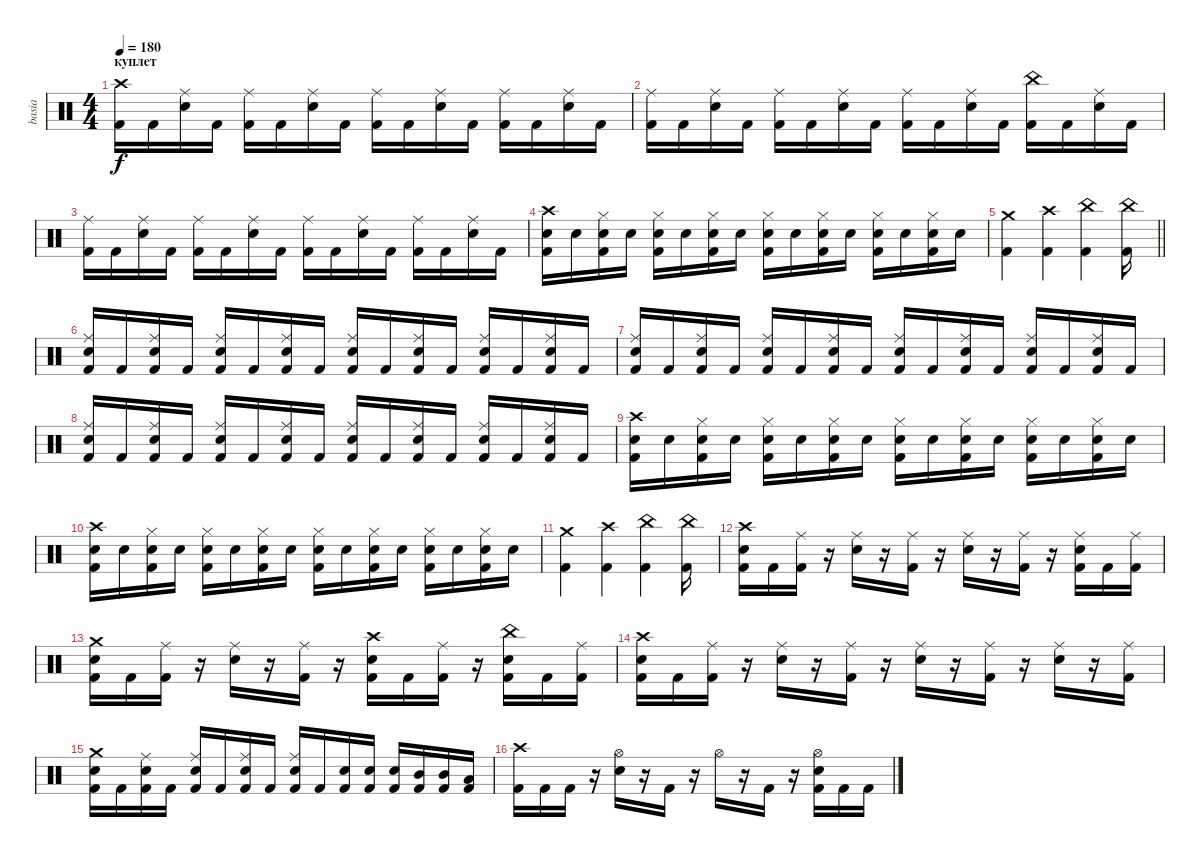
\track ("basia" "basia") {instrument percussion}
\staff {score}
\articulation defaults
\ts (4 4)
\section ("" "куплет")
\tempo 180
\clef neutral
\ks c
("Crash high (hit)" "Kick (hit) 2").16{dy f} "Kick (hit) 2".16 ("Ride (middle)" "Snare (hit) 2").16 "Kick (hit) 2".16 ("Ride (middle)" "Kick (hit) 2").16 "Kick (hit) 2".16 ("Ride (middle)" "Snare (hit) 2").16 "Kick (hit) 2".16 ("Ride (middle)" "Kick (hit) 2").16 "Kick (hit) 2".16 ("Ride (middle)" "Snare (hit) 2").16 "Kick (hit) 2".16 ("Ride (middle)" "Kick (hit) 2").16 "Kick (hit) 2".16 ("Ride (middle)" "Snare (hit) 2").16 "Kick (hit) 2".16 |
("Ride (middle)" "Kick (hit) 2").16 "Kick (hit) 2".16 ("Ride (middle)" "Snare (hit) 2").16 "Kick (hit) 2".16 ("Ride (middle)" "Kick (hit) 2").16 "Kick (hit) 2".16 ("Ride (middle)" "Snare (hit) 2").16 "Kick (hit) 2".16 ("Ride (middle)" "Kick (hit) 2").16 "Kick (hit) 2".16 ("Ride (middle)" "Snare (hit) 2").16 "Kick (hit) 2".16 ("China (hit)" "Kick (hit) 2").16 "Kick (hit) 2".16 ("Ride (middle)" "Snare (hit) 2").16 "Kick (hit) 2".16 |
("Ride (middle)" "Kick (hit) 2").16 "Kick (hit) 2".16 ("Ride (middle)" "Snare (hit) 2").16 "Kick (hit) 2".16 ("Ride (middle)" "Kick (hit) 2").16 "Kick (hit) 2".16 ("Ride (middle)" "Snare (hit) 2").16 "Kick (hit) 2".16 ("Ride (middle)" "Kick (hit) 2").16 "Kick (hit) 2".16 ("Ride (middle)" "Snare (hit) 2").16 "Kick (hit) 2".16 ("Ride (middle)" "Kick (hit) 2").16 "Kick (hit) 2".16 ("Ride (middle)" "Snare (hit) 2").16 "Kick (hit) 2".16 |
("Crash high (hit)" "Snare (hit) 2" "Kick (hit) 2").16 "Snare (hit) 2".16 ("Hi-Hat (closed)" "Snare (hit) 2" "Kick (hit) 2").16 "Snare (hit) 2".16 ("Hi-Hat (closed)" "Snare (hit) 2" "Kick (hit) 2").16 "Snare (hit) 2".16 ("Hi-Hat (closed)" "Snare (hit) 2" "Kick (hit) 2").16 "Snare (hit) 2".16 ("Hi-Hat (closed)" "Snare (hit) 2" "Kick (hit) 2").16 "Snare (hit) 2".16 ("Hi-Hat (closed)" "Snare (hit) 2" "Kick (hit) 2").16 "Snare (hit) 2".16 ("Hi-Hat (closed)" "Snare (hit) 2" "Kick (hit) 2").16 "Snare (hit) 2".16 ("Hi-Hat (closed)" "Snare (hit) 2" "Kick (hit) 2").16 "Snare (hit) 2".16 |
\barLineRight lightlight
("Crash medium (hit)" "Kick (hit) 2").4 ("Crash high (hit)" "Kick (hit) 2").4 ("China (hit)" "Kick (hit) 2").4 ("China (hit)" "Kick (hit) 2").16 |
("Ride (middle)" "Snare (hit) 2" "Kick (hit) 2").16 "Kick (hit) 2".16 ("Ride (middle)" "Snare (hit) 2" "Kick (hit) 2").16 "Kick (hit) 2".16 ("Ride (middle)" "Snare (hit) 2" "Kick (hit) 2").16 "Kick (hit) 2".16 ("Ride (middle)" "Snare (hit) 2" "Kick (hit) 2").16 "Kick (hit) 2".16 ("Ride (middle)" "Snare (hit) 2" "Kick (hit) 2").16 "Kick (hit) 2".16 ("Ride (middle)" "Snare (hit) 2" "Kick (hit) 2").16 "Kick (hit) 2".16 ("Ride (middle)" "Snare (hit) 2" "Kick (hit) 2").16 "Kick (hit) 2".16 ("Ride (middle)" "Snare (hit) 2" "Kick (hit) 2").16 "Kick (hit) 2".16 |
("Ride (middle)" "Snare (hit) 2" "Kick (hit) 2").16 "Kick (hit) 2".16 ("Ride (middle)" "Snare (hit) 2" "Kick (hit) 2").16 "Kick (hit) 2".16 ("Ride (middle)" "Snare (hit) 2" "Kick (hit) 2").16 "Kick (hit) 2".16 ("Ride (middle)" "Snare (hit) 2" "Kick (hit) 2").16 "Kick (hit) 2".16 ("Ride (middle)" "Snare (hit) 2" "Kick (hit) 2").16 "Kick (hit) 2".16 ("Ride (middle)" "Snare (hit) 2" "Kick (hit) 2").16 "Kick (hit) 2".16 ("Ride (middle)" "Snare (hit) 2" "Kick (hit) 2").16 "Kick (hit) 2".16 ("Ride (middle)" "Snare (hit) 2" "Kick (hit) 2").16 "Kick (hit) 2".16 |
("Ride (middle)" "Snare (hit) 2" "Kick (hit) 2").16 "Kick (hit) 2".16 ("Ride (middle)" "Snare (hit) 2" "Kick (hit) 2").16 "Kick (hit) 2".16 ("Ride (middle)" "Snare (hit) 2" "Kick (hit) 2").16 "Kick (hit) 2".16 ("Ride (middle)" "Snare (hit) 2" "Kick (hit) 2").16 "Kick (hit) 2".16 ("Ride (middle)" "Snare (hit) 2" "Kick (hit) 2").16 "Kick (hit) 2".16 ("Ride (middle)" "Snare (hit) 2" "Kick (hit) 2").16 "Kick (hit) 2".16 ("Ride (middle)" "Snare (hit) 2" "Kick (hit) 2").16 "Kick (hit) 2".16 ("Ride (middle)" "Snare (hit) 2" "Kick (hit) 2").16 "Kick (hit) 2".16 |
("Crash high (hit)" "Snare (hit) 2" "Kick (hit) 2").16 "Snare (hit) 2".16 ("Hi-Hat (closed)" "Snare (hit) 2" "Kick (hit) 2").16 "Snare (hit) 2".16 ("Hi-Hat (closed)" "Snare (hit) 2" "Kick (hit) 2").16 "Snare (hit) 2".16 ("Hi-Hat (closed)" "Snare (hit) 2" "Kick (hit) 2").16 "Snare (hit) 2".16 ("Hi-Hat (closed)" "Snare (hit) 2" "Kick (hit) 2").16 "Snare (hit) 2".16 ("Hi-Hat (closed)" "Snare (hit) 2" "Kick (hit) 2").16 "Snare (hit) 2".16 ("Hi-Hat (closed)" "Snare (hit) 2" "Kick (hit) 2").16 "Snare (hit) 2".16 ("Hi-Hat (closed)" "Snare (hit) 2" "Kick (hit) 2").16 "Snare (hit) 2".16 |
("Crash high (hit)" "Snare (hit) 2" "Kick (hit) 2").16 "Snare (hit) 2".16 ("Hi-Hat (closed)" "Snare (hit) 2" "Kick (hit) 2").16 "Snare (hit) 2".16 ("Hi-Hat (closed)" "Snare (hit) 2" "Kick (hit) 2").16 "Snare (hit) 2".16 ("Hi-Hat (closed)" "Snare (hit) 2" "Kick (hit) 2").16 "Snare (hit) 2".16 ("Hi-Hat (closed)" "Snare (hit) 2" "Kick (hit) 2").16 "Snare (hit) 2".16 ("Hi-Hat (closed)" "Snare (hit) 2" "Kick (hit) 2").16 "Snare (hit) 2".16 ("Hi-Hat (closed)" "Snare (hit) 2" "Kick (hit) 2").16 "Snare (hit) 2".16 ("Hi-Hat (closed)" "Snare (hit) 2" "Kick (hit) 2").16 "Snare (hit) 2".16 |
("Crash medium (hit)" "Kick (hit) 2").4 ("Crash high (hit)" "Kick (hit) 2").4 ("China (hit)" "Kick (hit) 2").4 ("China (hit)" "Kick (hit) 2").16 |
("Crash high (hit)" "Snare (hit) 2" "Kick (hit) 2").16 "Kick (hit) 2".16 ("Ride (middle)" "Kick (hit) 2").16 r.16 ("Ride (middle)" "Snare (hit) 2").16 r.16 ("Ride (middle)" "Kick (hit) 2").16 r.16 ("Ride (middle)" "Snare (hit) 2").16 r.16 ("Ride (middle)" "Kick (hit) 2").16 r.16 ("Ride (middle)" "Snare (hit) 2" "Kick (hit) 2").16 "Kick (hit) 2".16 ("Ride (middle)" "Kick (hit) 2").16 |
("Crash medium (hit)" "Snare (hit) 2" "Kick (hit) 2").16 "Kick (hit) 2".16 ("Ride (middle)" "Kick (hit) 2").16 r.16 ("Ride (middle)" "Snare (hit) 2").16 r.16 ("Ride (middle)" "Kick (hit) 2").16 r.16 ("Crash high (hit)" "Snare (hit) 2" "Kick (hit) 2").16 "Kick (hit) 2".16 ("Ride (middle)" "Kick (hit) 2").16 r.16 ("China (hit)" "Snare (hit) 2" "Kick (hit) 2").16 "Kick (hit) 2".16 ("Ride (middle)" "Kick (hit) 2").16 |
("Crash high (hit)" "Snare (hit) 2" "Kick (hit) 2").16 "Kick (hit) 2".16 ("Ride (middle)" "Kick (hit) 2").16 r.16 ("Ride (middle)" "Snare (hit) 2").16 r.16 ("Ride (middle)" "Kick (hit) 2").16 r.16 ("Ride (middle)" "Snare (hit) 2").16 r.16 ("Ride (middle)" "Kick (hit) 2").16 r.16 ("Ride (middle)" "Snare (hit) 2").16 r.16 ("Ride (middle)" "Kick (hit) 2").16 |
("Crash medium (hit)" "Snare (hit) 2" "Kick (hit) 2").16 "Kick (hit) 2".16 ("Ride (middle)" "Snare (hit) 2" "Kick (hit) 2").16 "Kick (hit) 2".16 ("Ride (middle)" "Snare (hit) 2" "Kick (hit) 2").16 "Kick (hit) 2".16 ("Ride (middle)" "Snare (hit) 2" "Kick (hit) 2").16 "Kick (hit) 2".16 ("Ride (middle)" "Snare (hit) 2" "Kick (hit) 2").16 "Kick (hit) 2".16 ("Snare (hit) 2" "Kick (hit) 2").16 ("Snare (hit) 2" "Kick (hit) 2").16 ("Snare (hit) 2" "Kick (hit) 2").16 ("Mid Tom (hit)" "Kick (hit) 2").16 ("Mid Tom (hit)" "Kick (hit) 2").16 ("Low Tom (hit)" "Kick (hit) 2").16 |
("Crash high (hit)" "Kick (hit) 2").16 "Kick (hit) 2".16 "Kick (hit) 2".16 r.16 ("Hi-Hat (open)" "Snare (hit) 2").16 r.16 "Kick (hit) 2".16 r.16 "Hi-Hat (open)".16 r.16 "Kick (hit) 2".16 r.16 ("Hi-Hat (open)" "Snare (hit) 2" "Kick (hit) 2").16 "Kick (hit) 2".16 "Kick (hit) 2".16
